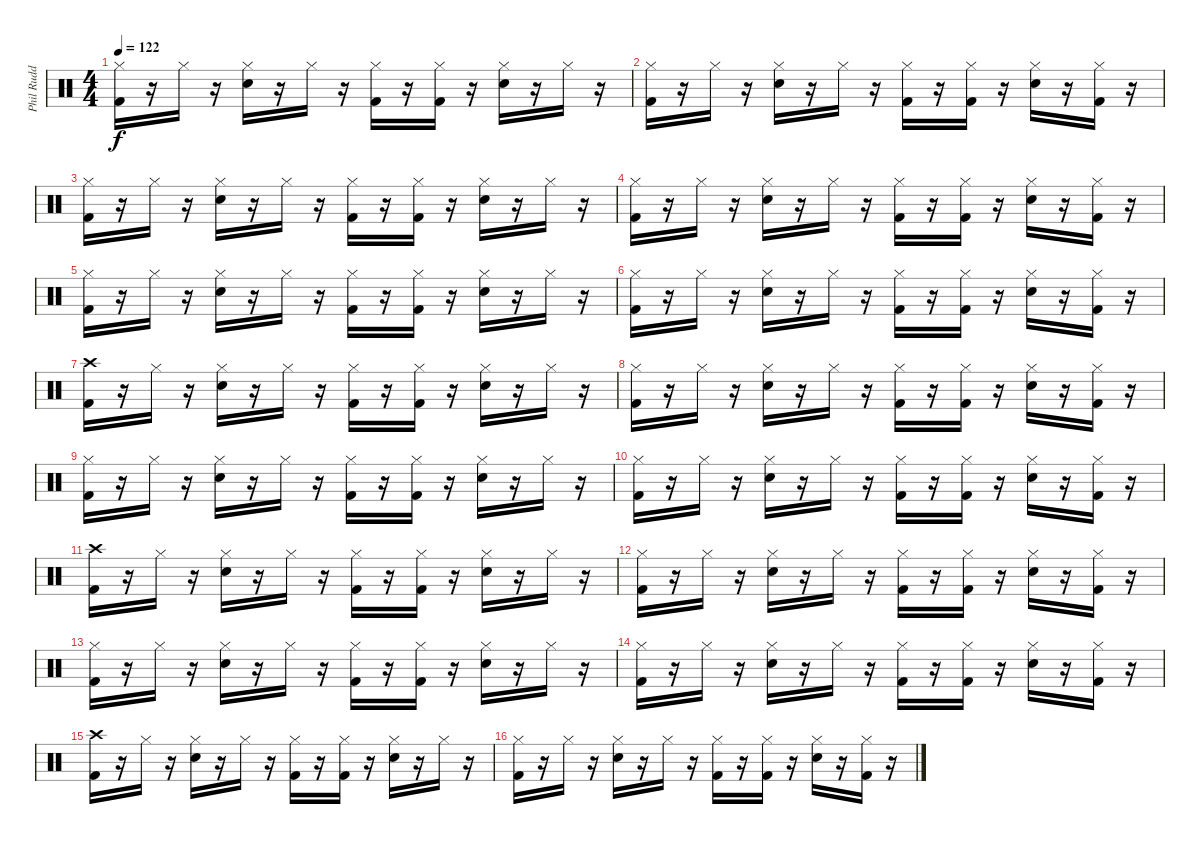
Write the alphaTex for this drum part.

\track ("Phil Rudd" "Phil Rudd") {instrument percussion}
\staff {score}
\articulation defaults
\ts (4 4)
\tempo 122
\clef neutral
\ks c
("Hi-Hat (closed)" "Kick (hit) 2").16{dy f} r.16 "Hi-Hat (closed)".16 r.16 ("Hi-Hat (closed)" "Snare (hit) 2").16 r.16 "Hi-Hat (closed)".16 r.16 ("Hi-Hat (closed)" "Kick (hit) 2").16 r.16 ("Hi-Hat (closed)" "Kick (hit) 2").16 r.16 ("Hi-Hat (closed)" "Snare (hit) 2").16 r.16 "Hi-Hat (closed)".16 r.16 |
("Hi-Hat (closed)" "Kick (hit) 2").16 r.16 "Hi-Hat (closed)".16 r.16 ("Hi-Hat (closed)" "Snare (hit) 2").16 r.16 "Hi-Hat (closed)".16 r.16 ("Hi-Hat (closed)" "Kick (hit) 2").16 r.16 ("Hi-Hat (closed)" "Kick (hit) 2").16 r.16 ("Hi-Hat (closed)" "Snare (hit) 2").16 r.16 ("Hi-Hat (closed)" "Kick (hit) 2").16 r.16 |
("Hi-Hat (closed)" "Kick (hit) 2").16 r.16 "Hi-Hat (closed)".16 r.16 ("Hi-Hat (closed)" "Snare (hit) 2").16 r.16 "Hi-Hat (closed)".16 r.16 ("Hi-Hat (closed)" "Kick (hit) 2").16 r.16 ("Hi-Hat (closed)" "Kick (hit) 2").16 r.16 ("Hi-Hat (closed)" "Snare (hit) 2").16 r.16 "Hi-Hat (closed)".16 r.16 |
("Hi-Hat (closed)" "Kick (hit) 2").16 r.16 "Hi-Hat (closed)".16 r.16 ("Hi-Hat (closed)" "Snare (hit) 2").16 r.16 "Hi-Hat (closed)".16 r.16 ("Hi-Hat (closed)" "Kick (hit) 2").16 r.16 ("Hi-Hat (closed)" "Kick (hit) 2").16 r.16 ("Hi-Hat (closed)" "Snare (hit) 2").16 r.16 ("Hi-Hat (closed)" "Kick (hit) 2").16 r.16 |
("Hi-Hat (closed)" "Kick (hit) 2").16 r.16 "Hi-Hat (closed)".16 r.16 ("Hi-Hat (closed)" "Snare (hit) 2").16 r.16 "Hi-Hat (closed)".16 r.16 ("Hi-Hat (closed)" "Kick (hit) 2").16 r.16 ("Hi-Hat (closed)" "Kick (hit) 2").16 r.16 ("Hi-Hat (closed)" "Snare (hit) 2").16 r.16 "Hi-Hat (closed)".16 r.16 |
("Hi-Hat (closed)" "Kick (hit) 2").16 r.16 "Hi-Hat (closed)".16 r.16 ("Hi-Hat (closed)" "Snare (hit) 2").16 r.16 "Hi-Hat (closed)".16 r.16 ("Hi-Hat (closed)" "Kick (hit) 2").16 r.16 ("Hi-Hat (closed)" "Kick (hit) 2").16 r.16 ("Hi-Hat (closed)" "Snare (hit) 2").16 r.16 ("Hi-Hat (closed)" "Kick (hit) 2").16 r.16 |
("Crash high (hit)" "Kick (hit) 2").16 r.16 "Hi-Hat (closed)".16 r.16 ("Hi-Hat (closed)" "Snare (hit) 2").16 r.16 "Hi-Hat (closed)".16 r.16 ("Hi-Hat (closed)" "Kick (hit) 2").16 r.16 ("Hi-Hat (closed)" "Kick (hit) 2").16 r.16 ("Hi-Hat (closed)" "Snare (hit) 2").16 r.16 "Hi-Hat (closed)".16 r.16 |
("Hi-Hat (closed)" "Kick (hit) 2").16 r.16 "Hi-Hat (closed)".16 r.16 ("Hi-Hat (closed)" "Snare (hit) 2").16 r.16 "Hi-Hat (closed)".16 r.16 ("Hi-Hat (closed)" "Kick (hit) 2").16 r.16 ("Hi-Hat (closed)" "Kick (hit) 2").16 r.16 ("Hi-Hat (closed)" "Snare (hit) 2").16 r.16 ("Hi-Hat (closed)" "Kick (hit) 2").16 r.16 |
("Hi-Hat (closed)" "Kick (hit) 2").16 r.16 "Hi-Hat (closed)".16 r.16 ("Hi-Hat (closed)" "Snare (hit) 2").16 r.16 "Hi-Hat (closed)".16 r.16 ("Hi-Hat (closed)" "Kick (hit) 2").16 r.16 ("Hi-Hat (closed)" "Kick (hit) 2").16 r.16 ("Hi-Hat (closed)" "Snare (hit) 2").16 r.16 "Hi-Hat (closed)".16 r.16 |
("Hi-Hat (closed)" "Kick (hit) 2").16 r.16 "Hi-Hat (closed)".16 r.16 ("Hi-Hat (closed)" "Snare (hit) 2").16 r.16 "Hi-Hat (closed)".16 r.16 ("Hi-Hat (closed)" "Kick (hit) 2").16 r.16 ("Hi-Hat (closed)" "Kick (hit) 2").16 r.16 ("Hi-Hat (closed)" "Snare (hit) 2").16 r.16 ("Hi-Hat (closed)" "Kick (hit) 2").16 r.16 |
("Crash high (hit)" "Kick (hit) 2").16 r.16 "Hi-Hat (closed)".16 r.16 ("Hi-Hat (closed)" "Snare (hit) 2").16 r.16 "Hi-Hat (closed)".16 r.16 ("Hi-Hat (closed)" "Kick (hit) 2").16 r.16 ("Hi-Hat (closed)" "Kick (hit) 2").16 r.16 ("Hi-Hat (closed)" "Snare (hit) 2").16 r.16 "Hi-Hat (closed)".16 r.16 |
("Hi-Hat (closed)" "Kick (hit) 2").16 r.16 "Hi-Hat (closed)".16 r.16 ("Hi-Hat (closed)" "Snare (hit) 2").16 r.16 "Hi-Hat (closed)".16 r.16 ("Hi-Hat (closed)" "Kick (hit) 2").16 r.16 ("Hi-Hat (closed)" "Kick (hit) 2").16 r.16 ("Hi-Hat (closed)" "Snare (hit) 2").16 r.16 ("Hi-Hat (closed)" "Kick (hit) 2").16 r.16 |
("Hi-Hat (closed)" "Kick (hit) 2").16 r.16 "Hi-Hat (closed)".16 r.16 ("Hi-Hat (closed)" "Snare (hit) 2").16 r.16 "Hi-Hat (closed)".16 r.16 ("Hi-Hat (closed)" "Kick (hit) 2").16 r.16 ("Hi-Hat (closed)" "Kick (hit) 2").16 r.16 ("Hi-Hat (closed)" "Snare (hit) 2").16 r.16 "Hi-Hat (closed)".16 r.16 |
("Hi-Hat (closed)" "Kick (hit) 2").16 r.16 "Hi-Hat (closed)".16 r.16 ("Hi-Hat (closed)" "Snare (hit) 2").16 r.16 "Hi-Hat (closed)".16 r.16 ("Hi-Hat (closed)" "Kick (hit) 2").16 r.16 ("Hi-Hat (closed)" "Kick (hit) 2").16 r.16 ("Hi-Hat (closed)" "Snare (hit) 2").16 r.16 ("Hi-Hat (closed)" "Kick (hit) 2").16 r.16 |
("Crash high (hit)" "Kick (hit) 2").16 r.16 "Hi-Hat (closed)".16 r.16 ("Hi-Hat (closed)" "Snare (hit) 2").16 r.16 "Hi-Hat (closed)".16 r.16 ("Hi-Hat (closed)" "Kick (hit) 2").16 r.16 ("Hi-Hat (closed)" "Kick (hit) 2").16 r.16 ("Hi-Hat (closed)" "Snare (hit) 2").16 r.16 "Hi-Hat (closed)".16 r.16 |
("Hi-Hat (closed)" "Kick (hit) 2").16 r.16 "Hi-Hat (closed)".16 r.16 ("Hi-Hat (closed)" "Snare (hit) 2").16 r.16 "Hi-Hat (closed)".16 r.16 ("Hi-Hat (closed)" "Kick (hit) 2").16 r.16 ("Hi-Hat (closed)" "Kick (hit) 2").16 r.16 ("Hi-Hat (closed)" "Snare (hit) 2").16 r.16 ("Hi-Hat (closed)" "Kick (hit) 2").16 r.16
